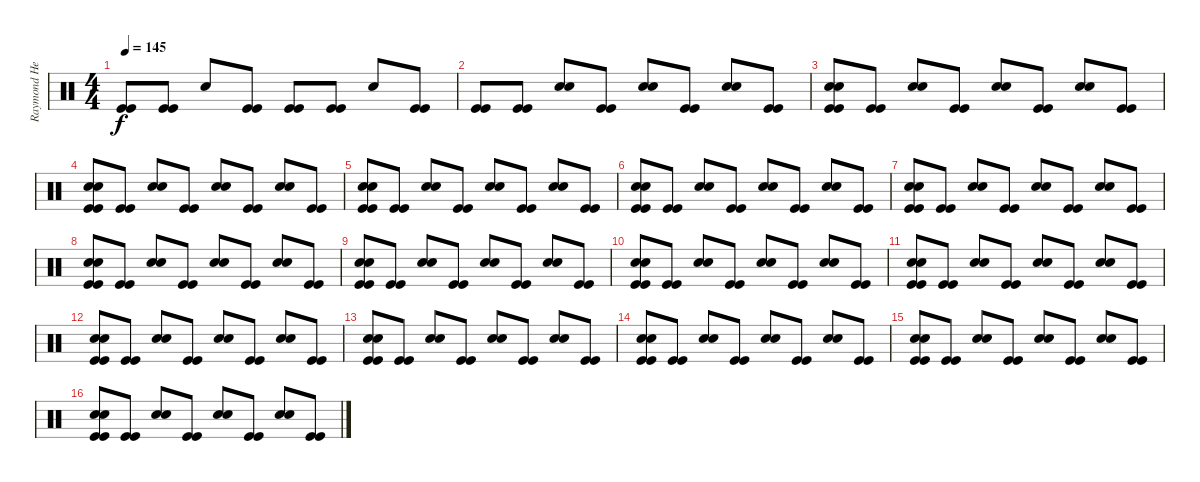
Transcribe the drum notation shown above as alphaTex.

\track ("Raymond Herrera" "Raymond He") {instrument percussion}
\staff {score}
\articulation defaults
\ts (4 4)
\tempo 145
\clef neutral
\ks c
("Kick (hit)" "Kick (hit)").8{dy f} ("Kick (hit)" "Kick (hit)").8 "Electric Snare (hit)".8 ("Kick (hit)" "Kick (hit)").8 ("Kick (hit)" "Kick (hit)").8 ("Kick (hit)" "Kick (hit)").8 "Electric Snare (hit)".8 ("Kick (hit)" "Kick (hit)").8 |
("Kick (hit)" "Kick (hit)").8 ("Kick (hit)" "Kick (hit)").8 ("Electric Snare (hit)" "Electric Snare (hit)").8 ("Kick (hit)" "Kick (hit)").8 ("Electric Snare (hit)" "Electric Snare (hit)").8 ("Kick (hit)" "Kick (hit)").8 ("Electric Snare (hit)" "Electric Snare (hit)").8 ("Kick (hit)" "Kick (hit)").8 |
("Electric Snare (hit)" "Electric Snare (hit)" "Kick (hit)" "Kick (hit)").8 ("Kick (hit)" "Kick (hit)").8 ("Electric Snare (hit)" "Electric Snare (hit)").8 ("Kick (hit)" "Kick (hit)").8 ("Electric Snare (hit)" "Electric Snare (hit)").8 ("Kick (hit)" "Kick (hit)").8 ("Electric Snare (hit)" "Electric Snare (hit)").8 ("Kick (hit)" "Kick (hit)").8 |
("Electric Snare (hit)" "Electric Snare (hit)" "Kick (hit)" "Kick (hit)").8 ("Kick (hit)" "Kick (hit)").8 ("Electric Snare (hit)" "Electric Snare (hit)").8 ("Kick (hit)" "Kick (hit)").8 ("Electric Snare (hit)" "Electric Snare (hit)").8 ("Kick (hit)" "Kick (hit)").8 ("Electric Snare (hit)" "Electric Snare (hit)").8 ("Kick (hit)" "Kick (hit)").8 |
("Electric Snare (hit)" "Electric Snare (hit)" "Kick (hit)" "Kick (hit)").8 ("Kick (hit)" "Kick (hit)").8 ("Electric Snare (hit)" "Electric Snare (hit)").8 ("Kick (hit)" "Kick (hit)").8 ("Electric Snare (hit)" "Electric Snare (hit)").8 ("Kick (hit)" "Kick (hit)").8 ("Electric Snare (hit)" "Electric Snare (hit)").8 ("Kick (hit)" "Kick (hit)").8 |
("Electric Snare (hit)" "Electric Snare (hit)" "Kick (hit)" "Kick (hit)").8 ("Kick (hit)" "Kick (hit)").8 ("Electric Snare (hit)" "Electric Snare (hit)").8 ("Kick (hit)" "Kick (hit)").8 ("Electric Snare (hit)" "Electric Snare (hit)").8 ("Kick (hit)" "Kick (hit)").8 ("Electric Snare (hit)" "Electric Snare (hit)").8 ("Kick (hit)" "Kick (hit)").8 |
("Electric Snare (hit)" "Electric Snare (hit)" "Kick (hit)" "Kick (hit)").8 ("Kick (hit)" "Kick (hit)").8 ("Electric Snare (hit)" "Electric Snare (hit)").8 ("Kick (hit)" "Kick (hit)").8 ("Electric Snare (hit)" "Electric Snare (hit)").8 ("Kick (hit)" "Kick (hit)").8 ("Electric Snare (hit)" "Electric Snare (hit)").8 ("Kick (hit)" "Kick (hit)").8 |
("Electric Snare (hit)" "Electric Snare (hit)" "Kick (hit)" "Kick (hit)").8 ("Kick (hit)" "Kick (hit)").8 ("Electric Snare (hit)" "Electric Snare (hit)").8 ("Kick (hit)" "Kick (hit)").8 ("Electric Snare (hit)" "Electric Snare (hit)").8 ("Kick (hit)" "Kick (hit)").8 ("Electric Snare (hit)" "Electric Snare (hit)").8 ("Kick (hit)" "Kick (hit)").8 |
("Electric Snare (hit)" "Electric Snare (hit)" "Kick (hit)" "Kick (hit)").8 ("Kick (hit)" "Kick (hit)").8 ("Electric Snare (hit)" "Electric Snare (hit)").8 ("Kick (hit)" "Kick (hit)").8 ("Electric Snare (hit)" "Electric Snare (hit)").8 ("Kick (hit)" "Kick (hit)").8 ("Electric Snare (hit)" "Electric Snare (hit)").8 ("Kick (hit)" "Kick (hit)").8 |
("Electric Snare (hit)" "Electric Snare (hit)" "Kick (hit)" "Kick (hit)").8 ("Kick (hit)" "Kick (hit)").8 ("Electric Snare (hit)" "Electric Snare (hit)").8 ("Kick (hit)" "Kick (hit)").8 ("Electric Snare (hit)" "Electric Snare (hit)").8 ("Kick (hit)" "Kick (hit)").8 ("Electric Snare (hit)" "Electric Snare (hit)").8 ("Kick (hit)" "Kick (hit)").8 |
("Electric Snare (hit)" "Electric Snare (hit)" "Kick (hit)" "Kick (hit)").8 ("Kick (hit)" "Kick (hit)").8 ("Electric Snare (hit)" "Electric Snare (hit)").8 ("Kick (hit)" "Kick (hit)").8 ("Electric Snare (hit)" "Electric Snare (hit)").8 ("Kick (hit)" "Kick (hit)").8 ("Electric Snare (hit)" "Electric Snare (hit)").8 ("Kick (hit)" "Kick (hit)").8 |
("Electric Snare (hit)" "Electric Snare (hit)" "Kick (hit)" "Kick (hit)").8 ("Kick (hit)" "Kick (hit)").8 ("Electric Snare (hit)" "Electric Snare (hit)").8 ("Kick (hit)" "Kick (hit)").8 ("Electric Snare (hit)" "Electric Snare (hit)").8 ("Kick (hit)" "Kick (hit)").8 ("Electric Snare (hit)" "Electric Snare (hit)").8 ("Kick (hit)" "Kick (hit)").8 |
("Electric Snare (hit)" "Electric Snare (hit)" "Kick (hit)" "Kick (hit)").8 ("Kick (hit)" "Kick (hit)").8 ("Electric Snare (hit)" "Electric Snare (hit)").8 ("Kick (hit)" "Kick (hit)").8 ("Electric Snare (hit)" "Electric Snare (hit)").8 ("Kick (hit)" "Kick (hit)").8 ("Electric Snare (hit)" "Electric Snare (hit)").8 ("Kick (hit)" "Kick (hit)").8 |
("Electric Snare (hit)" "Electric Snare (hit)" "Kick (hit)" "Kick (hit)").8 ("Kick (hit)" "Kick (hit)").8 ("Electric Snare (hit)" "Electric Snare (hit)").8 ("Kick (hit)" "Kick (hit)").8 ("Electric Snare (hit)" "Electric Snare (hit)").8 ("Kick (hit)" "Kick (hit)").8 ("Electric Snare (hit)" "Electric Snare (hit)").8 ("Kick (hit)" "Kick (hit)").8 |
("Electric Snare (hit)" "Electric Snare (hit)" "Kick (hit)" "Kick (hit)").8 ("Kick (hit)" "Kick (hit)").8 ("Electric Snare (hit)" "Electric Snare (hit)").8 ("Kick (hit)" "Kick (hit)").8 ("Electric Snare (hit)" "Electric Snare (hit)").8 ("Kick (hit)" "Kick (hit)").8 ("Electric Snare (hit)" "Electric Snare (hit)").8 ("Kick (hit)" "Kick (hit)").8 |
("Electric Snare (hit)" "Electric Snare (hit)" "Kick (hit)" "Kick (hit)").8 ("Kick (hit)" "Kick (hit)").8 ("Electric Snare (hit)" "Electric Snare (hit)").8 ("Kick (hit)" "Kick (hit)").8 ("Electric Snare (hit)" "Electric Snare (hit)").8 ("Kick (hit)" "Kick (hit)").8 ("Electric Snare (hit)" "Electric Snare (hit)").8 ("Kick (hit)" "Kick (hit)").8
